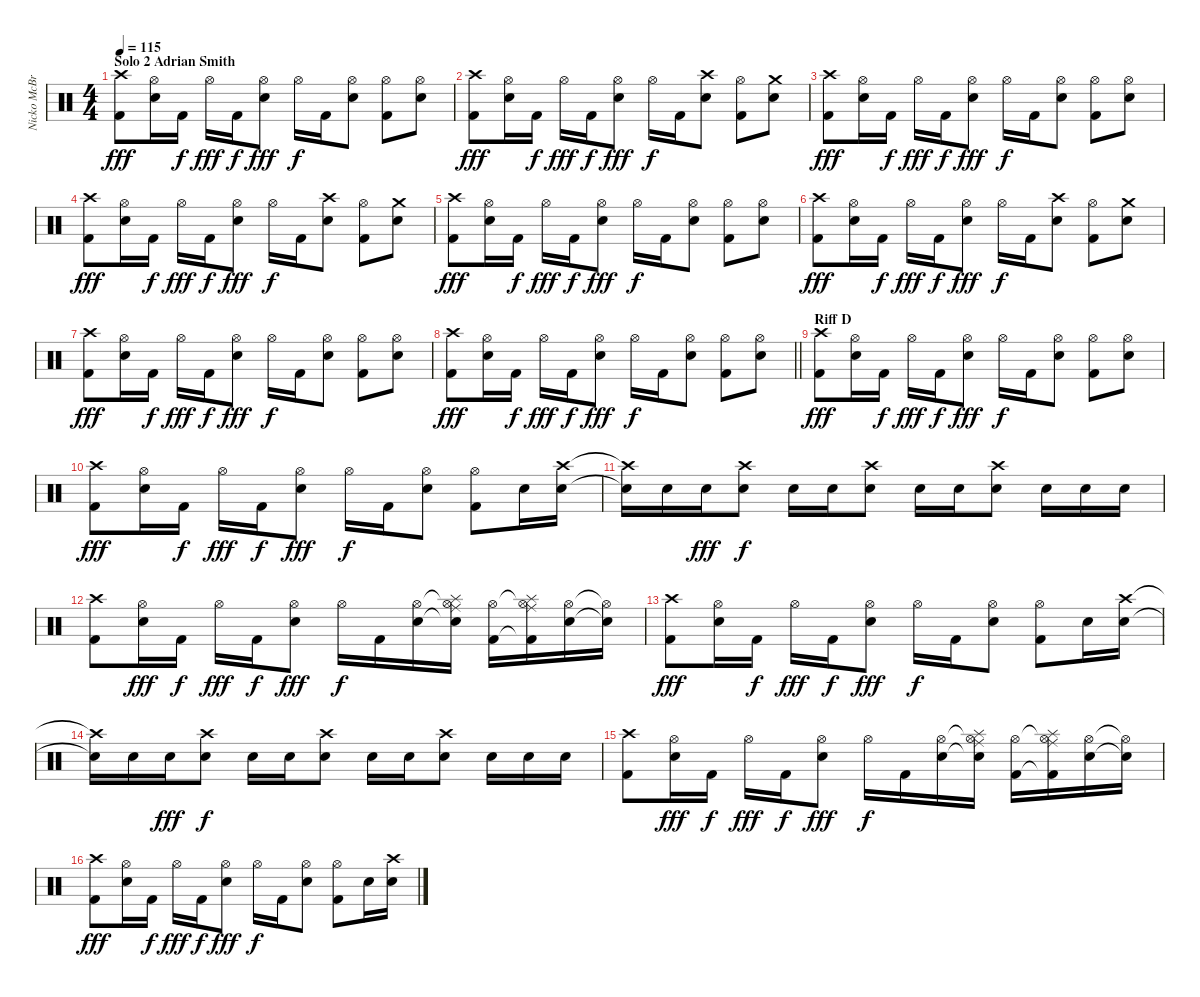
\track ("Nicko McBrain" "Nicko McBr") {instrument percussion}
\staff {score}
\articulation defaults
\ts (4 4)
\section ("" "Solo 2 Adrian Smith")
\tempo 115
\clef neutral
\ks c
("Kick (hit) 2" "Crash high (hit)").8{dy fff} ("Snare (hit) 2" "Hi-Hat (open)").16 "Kick (hit) 2".16{dy f} "Hi-Hat (open)".16{dy fff} "Kick (hit) 2".16{dy f} ("Snare (hit) 2" "Hi-Hat (open)").8{dy fff} "Hi-Hat (open)".16{dy f} "Kick (hit) 2".16 ("Snare (hit) 2" "Hi-Hat (open)").8 ("Kick (hit) 2" "Hi-Hat (open)").8 ("Snare (hit) 2" "Hi-Hat (open)").8 |
("Kick (hit) 2" "Crash high (hit)").8{dy fff} ("Snare (hit) 2" "Hi-Hat (open)").16 "Kick (hit) 2".16{dy f} "Hi-Hat (open)".16{dy fff} "Kick (hit) 2".16{dy f} ("Snare (hit) 2" "Hi-Hat (open)").8{dy fff} "Hi-Hat (open)".16{dy f} "Kick (hit) 2".16 ("Snare (hit) 2" "Crash high (hit)").8 ("Kick (hit) 2" "Hi-Hat (open)").8 ("Snare (hit) 2" "Crash medium (hit)").8 |
("Kick (hit) 2" "Crash high (hit)").8{dy fff} ("Snare (hit) 2" "Hi-Hat (open)").16 "Kick (hit) 2".16{dy f} "Hi-Hat (open)".16{dy fff} "Kick (hit) 2".16{dy f} ("Snare (hit) 2" "Hi-Hat (open)").8{dy fff} "Hi-Hat (open)".16{dy f} "Kick (hit) 2".16 ("Snare (hit) 2" "Hi-Hat (open)").8 ("Kick (hit) 2" "Hi-Hat (open)").8 ("Snare (hit) 2" "Hi-Hat (open)").8 |
("Kick (hit) 2" "Crash high (hit)").8{dy fff} ("Snare (hit) 2" "Hi-Hat (open)").16 "Kick (hit) 2".16{dy f} "Hi-Hat (open)".16{dy fff} "Kick (hit) 2".16{dy f} ("Snare (hit) 2" "Hi-Hat (open)").8{dy fff} "Hi-Hat (open)".16{dy f} "Kick (hit) 2".16 ("Snare (hit) 2" "Crash high (hit)").8 ("Kick (hit) 2" "Hi-Hat (open)").8 ("Snare (hit) 2" "Crash medium (hit)").8 |
("Kick (hit) 2" "Crash high (hit)").8{dy fff} ("Snare (hit) 2" "Hi-Hat (open)").16 "Kick (hit) 2".16{dy f} "Hi-Hat (open)".16{dy fff} "Kick (hit) 2".16{dy f} ("Snare (hit) 2" "Hi-Hat (open)").8{dy fff} "Hi-Hat (open)".16{dy f} "Kick (hit) 2".16 ("Snare (hit) 2" "Hi-Hat (open)").8 ("Kick (hit) 2" "Hi-Hat (open)").8 ("Snare (hit) 2" "Hi-Hat (open)").8 |
("Kick (hit) 2" "Crash high (hit)").8{dy fff} ("Snare (hit) 2" "Hi-Hat (open)").16 "Kick (hit) 2".16{dy f} "Hi-Hat (open)".16{dy fff} "Kick (hit) 2".16{dy f} ("Snare (hit) 2" "Hi-Hat (open)").8{dy fff} "Hi-Hat (open)".16{dy f} "Kick (hit) 2".16 ("Snare (hit) 2" "Crash high (hit)").8 ("Kick (hit) 2" "Hi-Hat (open)").8 ("Snare (hit) 2" "Crash medium (hit)").8 |
("Kick (hit) 2" "Crash high (hit)").8{dy fff} ("Snare (hit) 2" "Hi-Hat (open)").16 "Kick (hit) 2".16{dy f} "Hi-Hat (open)".16{dy fff} "Kick (hit) 2".16{dy f} ("Snare (hit) 2" "Hi-Hat (open)").8{dy fff} "Hi-Hat (open)".16{dy f} "Kick (hit) 2".16 ("Snare (hit) 2" "Hi-Hat (open)").8 ("Kick (hit) 2" "Hi-Hat (open)").8 ("Snare (hit) 2" "Hi-Hat (open)").8 |
\barLineRight lightlight
("Kick (hit) 2" "Crash high (hit)").8{dy fff} ("Snare (hit) 2" "Hi-Hat (open)").16 "Kick (hit) 2".16{dy f} "Hi-Hat (open)".16{dy fff} "Kick (hit) 2".16{dy f} ("Snare (hit) 2" "Hi-Hat (open)").8{dy fff} "Hi-Hat (open)".16{dy f} "Kick (hit) 2".16 ("Snare (hit) 2" "Hi-Hat (open)").8 ("Kick (hit) 2" "Hi-Hat (open)").8 ("Snare (hit) 2" "Hi-Hat (open)").8 |
\section ("" "Riff D")
("Kick (hit) 2" "Crash high (hit)").8{dy fff} ("Snare (hit) 2" "Hi-Hat (open)").16 "Kick (hit) 2".16{dy f} "Hi-Hat (open)".16{dy fff} "Kick (hit) 2".16{dy f} ("Snare (hit) 2" "Hi-Hat (open)").8{dy fff} "Hi-Hat (open)".16{dy f} "Kick (hit) 2".16 ("Snare (hit) 2" "Hi-Hat (open)").8 ("Kick (hit) 2" "Hi-Hat (open)").8 ("Snare (hit) 2" "Hi-Hat (open)").8 |
("Kick (hit) 2" "Crash high (hit)").8{dy fff} ("Snare (hit) 2" "Hi-Hat (open)").16 "Kick (hit) 2".16{dy f} "Hi-Hat (open)".16{dy fff} "Kick (hit) 2".16{dy f} ("Snare (hit) 2" "Hi-Hat (open)").8{dy fff} "Hi-Hat (open)".16{dy f} "Kick (hit) 2".16 ("Snare (hit) 2" "Hi-Hat (open)").8 ("Kick (hit) 2" "Hi-Hat (open)").8 "Snare (hit) 2".16 ("Snare (hit) 2" "Crash high (hit)").16 |
("Snare (hit) 2"{t} "Crash high (hit)"{t}).16 "Snare (hit) 2".16 "Snare (hit) 2".16{dy fff} ("Snare (hit) 2" "Crash high (hit)").8{dy f} "Snare (hit) 2".16 "Snare (hit) 2".16 ("Snare (hit) 2" "Crash high (hit)").8 "Snare (hit) 2".16 "Snare (hit) 2".16 ("Snare (hit) 2" "Crash high (hit)").8 "Snare (hit) 2".16 "Snare (hit) 2".16 "Snare (hit) 2".16 |
("Kick (hit) 2" "Crash high (hit)").8 ("Snare (hit) 2" "Hi-Hat (open)").16{dy fff} "Kick (hit) 2".16{dy f} "Hi-Hat (open)".16{dy fff} "Kick (hit) 2".16{dy f} ("Snare (hit) 2" "Hi-Hat (open)").8{dy fff} "Hi-Hat (open)".16{dy f} "Kick (hit) 2".16 ("Snare (hit) 2" "Hi-Hat (open)").16 ("Snare (hit) 2"{t} "Hi-Hat (open)"{t} "Ride (middle)" "Splash (hit)").16 ("Kick (hit) 2" "Hi-Hat (open)").16 ("Kick (hit) 2"{t} "Hi-Hat (open)"{t} "Ride (middle)" "Splash (hit)").16 ("Snare (hit) 2" "Hi-Hat (open)").16 ("Snare (hit) 2"{t} "Hi-Hat (open)"{t}).16 |
("Kick (hit) 2" "Crash high (hit)").8{dy fff} ("Snare (hit) 2" "Hi-Hat (open)").16 "Kick (hit) 2".16{dy f} "Hi-Hat (open)".16{dy fff} "Kick (hit) 2".16{dy f} ("Snare (hit) 2" "Hi-Hat (open)").8{dy fff} "Hi-Hat (open)".16{dy f} "Kick (hit) 2".16 ("Snare (hit) 2" "Hi-Hat (open)").8 ("Kick (hit) 2" "Hi-Hat (open)").8 "Snare (hit) 2".16 ("Snare (hit) 2" "Crash high (hit)").16 |
("Snare (hit) 2"{t} "Crash high (hit)"{t}).16 "Snare (hit) 2".16 "Snare (hit) 2".16{dy fff} ("Snare (hit) 2" "Crash high (hit)").8{dy f} "Snare (hit) 2".16 "Snare (hit) 2".16 ("Snare (hit) 2" "Crash high (hit)").8 "Snare (hit) 2".16 "Snare (hit) 2".16 ("Snare (hit) 2" "Crash high (hit)").8 "Snare (hit) 2".16 "Snare (hit) 2".16 "Snare (hit) 2".16 |
("Kick (hit) 2" "Crash high (hit)").8 ("Snare (hit) 2" "Hi-Hat (open)").16{dy fff} "Kick (hit) 2".16{dy f} "Hi-Hat (open)".16{dy fff} "Kick (hit) 2".16{dy f} ("Snare (hit) 2" "Hi-Hat (open)").8{dy fff} "Hi-Hat (open)".16{dy f} "Kick (hit) 2".16 ("Snare (hit) 2" "Hi-Hat (open)").16 ("Snare (hit) 2"{t} "Hi-Hat (open)"{t} "Ride (middle)" "Splash (hit)").16 ("Kick (hit) 2" "Hi-Hat (open)").16 ("Kick (hit) 2"{t} "Hi-Hat (open)"{t} "Ride (middle)" "Splash (hit)").16 ("Snare (hit) 2" "Hi-Hat (open)").16 ("Snare (hit) 2"{t} "Hi-Hat (open)"{t}).16 |
("Kick (hit) 2" "Crash high (hit)").8{dy fff} ("Snare (hit) 2" "Hi-Hat (open)").16 "Kick (hit) 2".16{dy f} "Hi-Hat (open)".16{dy fff} "Kick (hit) 2".16{dy f} ("Snare (hit) 2" "Hi-Hat (open)").8{dy fff} "Hi-Hat (open)".16{dy f} "Kick (hit) 2".16 ("Snare (hit) 2" "Hi-Hat (open)").8 ("Kick (hit) 2" "Hi-Hat (open)").8 "Snare (hit) 2".16 ("Snare (hit) 2" "Crash high (hit)").16
